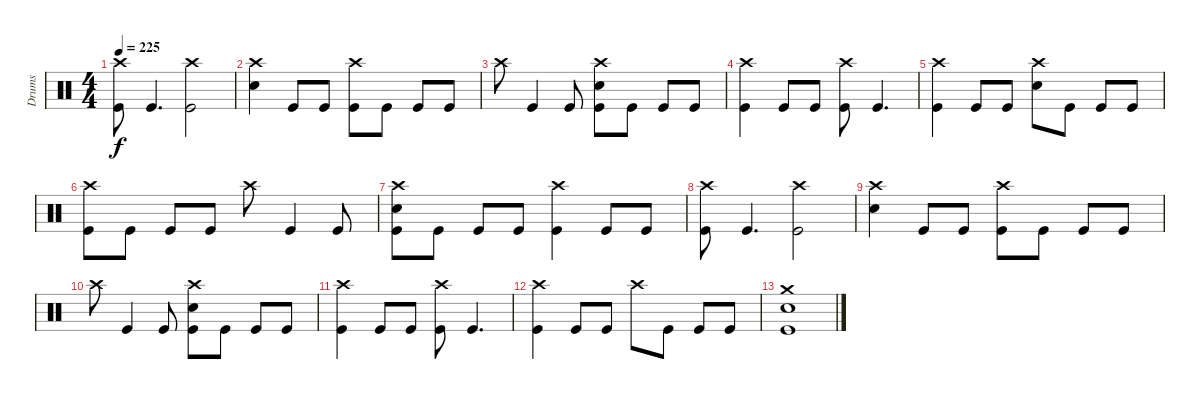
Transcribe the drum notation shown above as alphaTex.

\track ("Drums" "Drums") {instrument percussion}
\staff {score}
\articulation defaults
\ts (4 4)
\tempo 225
\clef neutral
\ks c
("Crash high (hit)" "Kick (hit)").8{dy f} "Kick (hit)".4{d} ("Crash high (hit)" "Kick (hit)").2 |
("Crash high (hit)" "Snare (hit) 2").4 "Kick (hit)".8 "Kick (hit)".8 ("Crash high (hit)" "Kick (hit)").8 "Kick (hit)".8 "Kick (hit)".8 "Kick (hit)".8 |
"Crash high (hit)".8 "Kick (hit)".4 "Kick (hit)".8 ("Crash high (hit)" "Snare (hit) 2" "Kick (hit)").8 "Kick (hit)".8 "Kick (hit)".8 "Kick (hit)".8 |
("Crash high (hit)" "Kick (hit)").4 "Kick (hit)".8 "Kick (hit)".8 ("Crash high (hit)" "Kick (hit)").8 "Kick (hit)".4{d} |
("Crash high (hit)" "Kick (hit)").4 "Kick (hit)".8 "Kick (hit)".8 ("Crash high (hit)" "Snare (hit) 2").8 "Kick (hit)".8 "Kick (hit)".8 "Kick (hit)".8 |
("Crash high (hit)" "Kick (hit)").8 "Kick (hit)".8 "Kick (hit)".8 "Kick (hit)".8 "Crash high (hit)".8 "Kick (hit)".4 "Kick (hit)".8 |
("Crash high (hit)" "Snare (hit) 2" "Kick (hit)").8 "Kick (hit)".8 "Kick (hit)".8 "Kick (hit)".8 ("Crash high (hit)" "Kick (hit)").4 "Kick (hit)".8 "Kick (hit)".8 |
("Crash high (hit)" "Kick (hit)").8 "Kick (hit)".4{d} ("Crash high (hit)" "Kick (hit)").2 |
("Crash high (hit)" "Snare (hit) 2").4 "Kick (hit)".8 "Kick (hit)".8 ("Crash high (hit)" "Kick (hit)").8 "Kick (hit)".8 "Kick (hit)".8 "Kick (hit)".8 |
"Crash high (hit)".8 "Kick (hit)".4 "Kick (hit)".8 ("Crash high (hit)" "Snare (hit) 2" "Kick (hit)").8 "Kick (hit)".8 "Kick (hit)".8 "Kick (hit)".8 |
("Crash high (hit)" "Kick (hit)").4 "Kick (hit)".8 "Kick (hit)".8 ("Crash high (hit)" "Kick (hit)").8 "Kick (hit)".4{d} |
("Crash high (hit)" "Kick (hit)").4 "Kick (hit)".8 "Kick (hit)".8 "Crash high (hit)".8 "Kick (hit)".8 "Kick (hit)".8 "Kick (hit)".8 |
("Crash medium (hit)" "Snare (hit) 2" "Kick (hit)").1
